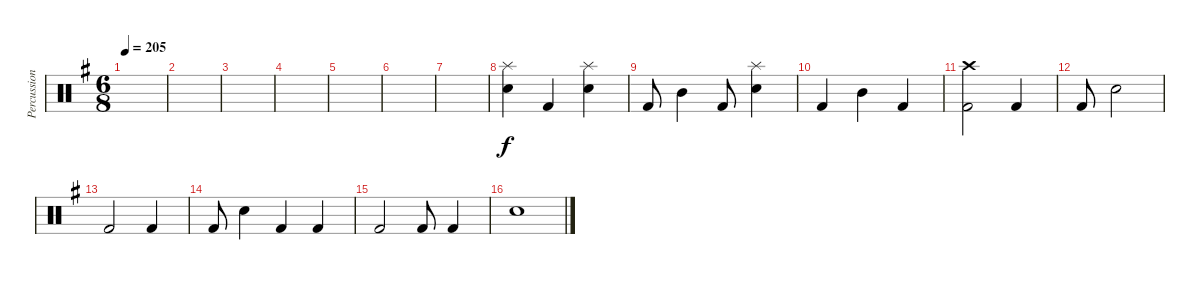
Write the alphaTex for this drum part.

\track ("Percussion" "Percussion") {instrument percussion}
\staff {score}
\articulation defaults
\ts (6 8)
\tempo 205
\clef neutral
\ks g
|
|
|
|
|
|
|
("Splash (hit)" "Electric Snare (hit)").4 "Kick (hit) 2".4 ("Splash (hit)" "Electric Snare (hit)").4 |
"Kick (hit) 2".8 "Mid Tom (hit)".4 "Kick (hit) 2".8 ("Splash (hit)" "Electric Snare (hit)").4 |
"Kick (hit) 2".4 "Mid Tom (hit)".4 "Kick (hit) 2".4 |
("Crash high (hit)" "Kick (hit) 2").2 "Kick (hit) 2".4 |
"Kick (hit) 2".8 "Electric Snare (hit)".2 |
"Kick (hit) 2".2 "Kick (hit) 2".4 |
"Kick (hit) 2".8 "Electric Snare (hit)".4 "Kick (hit) 2".4 "Kick (hit) 2".4 |
"Kick (hit) 2".2 "Kick (hit) 2".8 "Kick (hit) 2".4 |
"Electric Snare (hit)".1
